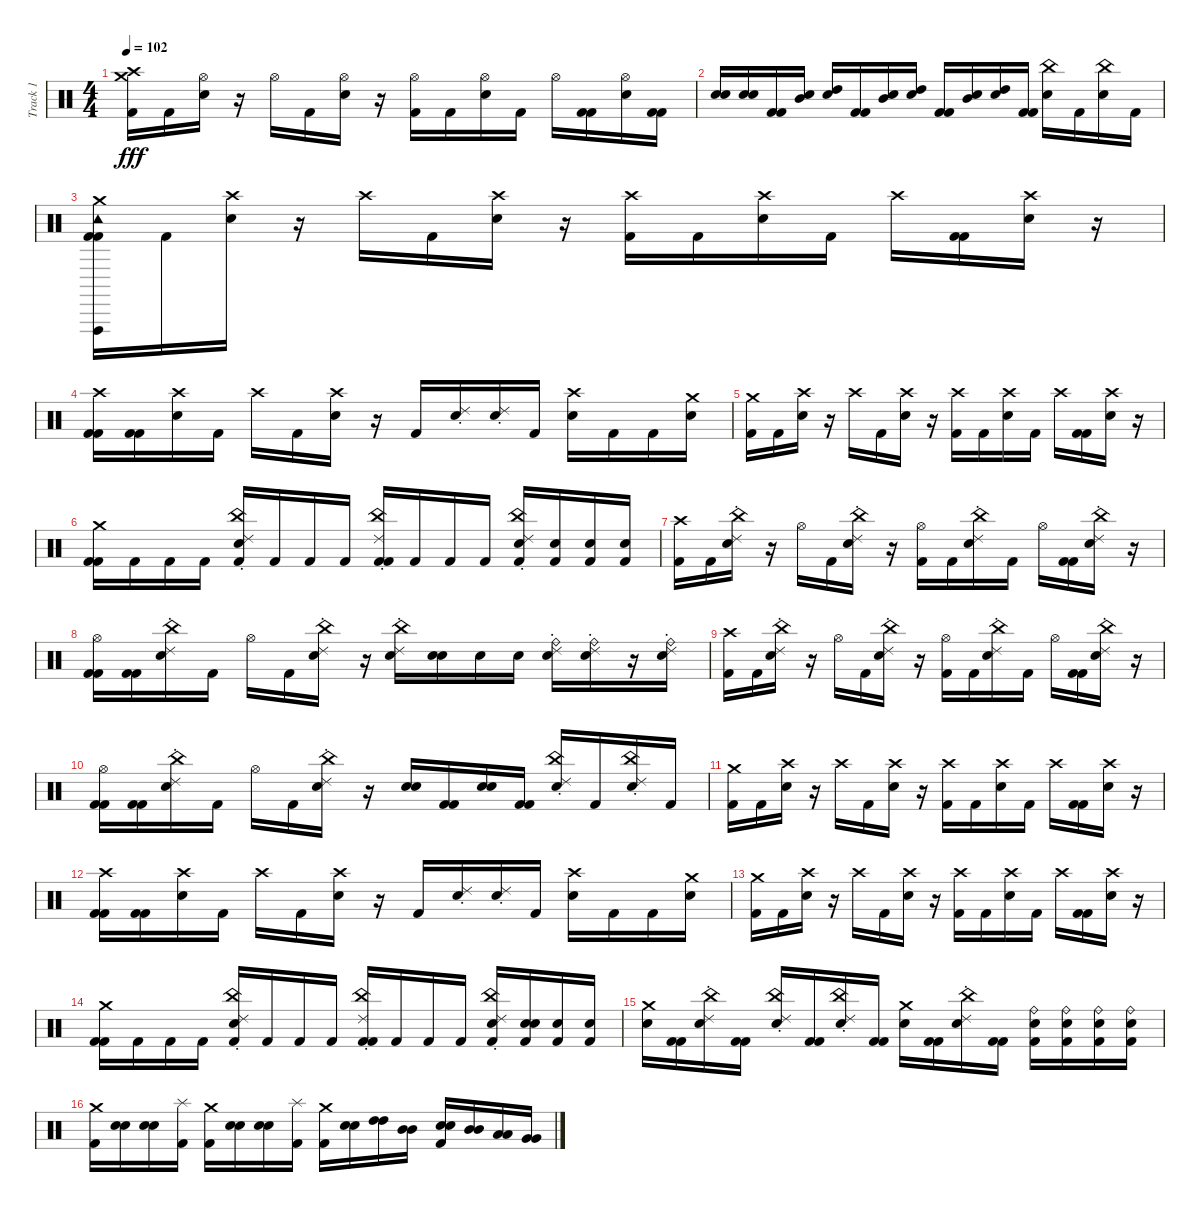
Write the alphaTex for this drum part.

\track ("Track 1" "Track 1") {instrument percussion}
\staff {score}
\articulation defaults
\ts (4 4)
\tempo 102
\clef neutral
\ks c
("Kick (hit) 2" "Crash high (hit)" "Crash medium (hit)").16{dy fff} "Kick (hit) 2".16 ("Snare (hit) 2" "Hi-Hat (open)").16 r.16 "Hi-Hat (open)".16 "Kick (hit) 2".16 ("Snare (hit) 2" "Hi-Hat (open)").16 r.16 ("Kick (hit) 2" "Hi-Hat (open)").16 "Kick (hit) 2".16 ("Snare (hit) 2" "Hi-Hat (open)").16 "Kick (hit) 2".16 "Hi-Hat (open)".16 ("Kick (hit) 2" "Kick (hit) 2").16 ("Hi-Hat (open)" "Snare (hit) 2").16 ("Kick (hit) 2" "Kick (hit) 2").16 |
("Snare (hit) 2" "Snare (hit) 2").16 ("Snare (hit) 2" "Snare (hit) 2").16 ("Kick (hit) 2" "Kick (hit) 2").16 ("Mid Tom (hit)" "Snare (hit) 2").16 ("Snare (hit) 2" "High Tom (hit)").16 ("Kick (hit) 2" "Kick (hit) 2").16 ("Mid Tom (hit)" "Snare (hit) 2").16 ("Snare (hit) 2" "High Tom (hit)").16 ("Kick (hit) 2" "Kick (hit) 2").16 ("Mid Tom (hit)" "Snare (hit) 2").16 ("Snare (hit) 2" "High Tom (hit)").16 ("Kick (hit) 2" "Kick (hit) 2").16 ("Snare (hit) 2" "China (hit)").16 "Kick (hit) 2".16 ("Snare (hit) 2" "China (hit)").16 "Kick (hit) 2".16 |
("Kick (hit) 2" "Vibraslap (hit)" "Tambourine (hit)" "Kick (hit) 2" "Crash medium (hit)").16 "Kick (hit) 2".16 ("Snare (hit) 2" "Crash high (hit)").16 r.16 "Crash high (hit)".16 "Kick (hit) 2".16 ("Snare (hit) 2" "Crash high (hit)").16 r.16 ("Kick (hit) 2" "Crash high (hit)").16 "Kick (hit) 2".16 ("Snare (hit) 2" "Crash high (hit)").16 "Kick (hit) 2".16 "Crash high (hit)".16 ("Kick (hit) 2" "Kick (hit) 2").16 ("Crash high (hit)" "Snare (hit) 2").16 r.16 |
("Crash high (hit)" "Kick (hit) 2" "Kick (hit) 2").16 ("Kick (hit) 2" "Kick (hit) 2").16 ("Crash high (hit)" "Snare (hit) 2").16 "Kick (hit) 2".16 "Crash high (hit)".16 "Kick (hit) 2".16 ("Crash high (hit)" "Snare (hit) 2").16 r.16 "Kick (hit) 2".16 ("Snare (hit) 2" "Ride (choke) 2").16 ("Snare (hit) 2" "Ride (choke) 2").16 "Kick (hit) 2".16 ("Snare (hit) 2" "Crash high (hit)").16 "Kick (hit) 2".16 "Kick (hit) 2".16 ("Crash medium (hit)" "Snare (hit) 2").16 |
("Kick (hit) 2" "Crash medium (hit)").16 "Kick (hit) 2".16 ("Snare (hit) 2" "Crash high (hit)").16 r.16 "Crash high (hit)".16 "Kick (hit) 2".16 ("Snare (hit) 2" "Crash high (hit)").16 r.16 ("Kick (hit) 2" "Crash high (hit)").16 "Kick (hit) 2".16 ("Snare (hit) 2" "Crash high (hit)").16 "Kick (hit) 2".16 "Crash high (hit)".16 ("Kick (hit) 2" "Kick (hit) 2").16 ("Crash high (hit)" "Snare (hit) 2").16 r.16 |
("Kick (hit) 2" "Crash medium (hit)" "Kick (hit) 2").16 "Kick (hit) 2".16 "Kick (hit) 2".16 "Kick (hit) 2".16 ("China (hit)" "Ride (choke) 2" "Kick (hit) 2" "Snare (hit) 2").16 "Kick (hit) 2".16 "Kick (hit) 2".16 "Kick (hit) 2".16 ("Ride (choke) 2" "China (hit)" "Kick (hit) 2" "Kick (hit) 2").16 "Kick (hit) 2".16 "Kick (hit) 2".16 "Kick (hit) 2".16 ("Ride (choke) 2" "China (hit)" "Kick (hit) 2" "Snare (hit) 2").16 ("Kick (hit) 2" "Snare (hit) 2").16 ("Kick (hit) 2" "Snare (hit) 2").16 ("Kick (hit) 2" "Snare (hit) 2").16 |
("Kick (hit) 2" "Crash high (hit)").16 "Kick (hit) 2".16 ("Snare (hit) 2" "China (hit)" "Ride (choke) 2").16 r.16 "Hi-Hat (open)".16 "Kick (hit) 2".16 ("Snare (hit) 2" "China (hit)" "Ride (choke) 2").16 r.16 ("Kick (hit) 2" "Hi-Hat (open)").16 "Kick (hit) 2".16 ("Snare (hit) 2" "China (hit)" "Ride (choke) 2").16 "Kick (hit) 2".16 "Hi-Hat (open)".16 ("Kick (hit) 2" "Kick (hit) 2").16 ("China (hit)" "Ride (choke) 2" "Snare (hit) 2").16 r.16 |
("Hi-Hat (open)" "Kick (hit) 2" "Kick (hit) 2").16 ("Kick (hit) 2" "Kick (hit) 2").16 ("China (hit)" "Ride (choke) 2" "Snare (hit) 2").16 "Kick (hit) 2".16 "Hi-Hat (open)".16 "Kick (hit) 2".16 ("China (hit)" "Ride (choke) 2" "Snare (hit) 2").16 r.16 ("Snare (hit) 2" "China (hit)" "Ride (choke) 2").16 ("Snare (hit) 2" "Snare (hit) 2").16 "Snare (hit) 2".16 "Snare (hit) 2".16 ("Snare (hit) 2" "Ride (bell)" "Ride (choke) 2").16 ("Snare (hit) 2" "Ride (bell)" "Ride (choke) 2").16 r.16 ("Snare (hit) 2" "Ride (bell)" "Ride (choke) 2").16 |
("Kick (hit) 2" "Crash high (hit)").16 "Kick (hit) 2".16 ("Snare (hit) 2" "China (hit)" "Ride (choke) 2").16 r.16 "Hi-Hat (open)".16 "Kick (hit) 2".16 ("Snare (hit) 2" "China (hit)" "Ride (choke) 2").16 r.16 ("Kick (hit) 2" "Hi-Hat (open)").16 "Kick (hit) 2".16 ("Snare (hit) 2" "China (hit)" "Ride (choke) 2").16 "Kick (hit) 2".16 "Hi-Hat (open)".16 ("Kick (hit) 2" "Kick (hit) 2").16 ("China (hit)" "Ride (choke) 2" "Snare (hit) 2").16 r.16 |
("Hi-Hat (open)" "Kick (hit) 2" "Kick (hit) 2").16 ("Kick (hit) 2" "Kick (hit) 2").16 ("China (hit)" "Ride (choke) 2" "Snare (hit) 2").16 "Kick (hit) 2".16 "Hi-Hat (open)".16 "Kick (hit) 2".16 ("China (hit)" "Ride (choke) 2" "Snare (hit) 2").16 r.16 ("Snare (hit) 2" "Snare (hit) 2").16 ("Kick (hit) 2" "Kick (hit) 2").16 ("Snare (hit) 2" "Snare (hit) 2").16 ("Kick (hit) 2" "Kick (hit) 2").16 ("China (hit)" "Ride (choke) 2" "Snare (hit) 2").16 "Kick (hit) 2".16 ("China (hit)" "Ride (choke) 2" "Snare (hit) 2").16 "Kick (hit) 2".16 |
("Kick (hit) 2" "Crash medium (hit)").16 "Kick (hit) 2".16 ("Snare (hit) 2" "Crash high (hit)").16 r.16 "Crash high (hit)".16 "Kick (hit) 2".16 ("Snare (hit) 2" "Crash high (hit)").16 r.16 ("Kick (hit) 2" "Crash high (hit)").16 "Kick (hit) 2".16 ("Snare (hit) 2" "Crash high (hit)").16 "Kick (hit) 2".16 "Crash high (hit)".16 ("Kick (hit) 2" "Kick (hit) 2").16 ("Crash high (hit)" "Snare (hit) 2").16 r.16 |
("Crash high (hit)" "Kick (hit) 2" "Kick (hit) 2").16 ("Kick (hit) 2" "Kick (hit) 2").16 ("Crash high (hit)" "Snare (hit) 2").16 "Kick (hit) 2".16 "Crash high (hit)".16 "Kick (hit) 2".16 ("Crash high (hit)" "Snare (hit) 2").16 r.16 "Kick (hit) 2".16 ("Snare (hit) 2" "Ride (choke) 2").16 ("Snare (hit) 2" "Ride (choke) 2").16 "Kick (hit) 2".16 ("Snare (hit) 2" "Crash high (hit)").16 "Kick (hit) 2".16 "Kick (hit) 2".16 ("Crash medium (hit)" "Snare (hit) 2").16 |
("Kick (hit) 2" "Crash medium (hit)").16 "Kick (hit) 2".16 ("Snare (hit) 2" "Crash high (hit)").16 r.16 "Crash high (hit)".16 "Kick (hit) 2".16 ("Snare (hit) 2" "Crash high (hit)").16 r.16 ("Kick (hit) 2" "Crash high (hit)").16 "Kick (hit) 2".16 ("Snare (hit) 2" "Crash high (hit)").16 "Kick (hit) 2".16 "Crash high (hit)".16 ("Kick (hit) 2" "Kick (hit) 2").16 ("Crash high (hit)" "Snare (hit) 2").16 r.16 |
("Kick (hit) 2" "Crash medium (hit)" "Kick (hit) 2").16 "Kick (hit) 2".16 "Kick (hit) 2".16 "Kick (hit) 2".16 ("China (hit)" "Ride (choke) 2" "Kick (hit) 2" "Snare (hit) 2").16 "Kick (hit) 2".16 "Kick (hit) 2".16 "Kick (hit) 2".16 ("Ride (choke) 2" "China (hit)" "Kick (hit) 2" "Kick (hit) 2").16 "Kick (hit) 2".16 "Kick (hit) 2".16 "Kick (hit) 2".16 ("Ride (choke) 2" "China (hit)" "Kick (hit) 2" "Snare (hit) 2").16 ("Kick (hit) 2" "Snare (hit) 2" "Snare (hit) 2").16 ("Kick (hit) 2" "Snare (hit) 2").16 ("Kick (hit) 2" "Snare (hit) 2").16 |
("Crash medium (hit)" "Snare (hit) 2").16 ("Kick (hit) 2" "Kick (hit) 2").16 ("Snare (hit) 2" "China (hit)" "Ride (choke) 2").16 ("Kick (hit) 2" "Kick (hit) 2").16 ("Snare (hit) 2" "China (hit)" "Ride (choke) 2").16 ("Kick (hit) 2" "Kick (hit) 2").16 ("Snare (hit) 2" "China (hit)" "Ride (choke) 2").16 ("Kick (hit) 2" "Kick (hit) 2").16 ("Crash medium (hit)" "Snare (hit) 2").16 ("Kick (hit) 2" "Kick (hit) 2").16 ("Snare (hit) 2" "China (hit)" "Ride (choke) 2").16 ("Kick (hit) 2" "Kick (hit) 2").16 ("Snare (hit) 2" "Ride (bell)" "Kick (hit) 2").16 ("Snare (hit) 2" "Ride (bell)" "Kick (hit) 2").16 ("Snare (hit) 2" "Ride (bell)" "Kick (hit) 2").16 ("Snare (hit) 2" "Ride (bell)" "Kick (hit) 2").16 |
("Crash medium (hit)" "Kick (hit) 2").16 ("Snare (hit) 2" "Snare (hit) 2").16 ("Snare (hit) 2" "Snare (hit) 2").16 ("Kick (hit) 2" "Splash (hit)").16 ("Crash medium (hit)" "Kick (hit) 2").16 ("Snare (hit) 2" "Snare (hit) 2").16 ("Snare (hit) 2" "Snare (hit) 2").16 ("Kick (hit) 2" "Splash (hit)").16 ("Crash medium (hit)" "Kick (hit) 2").16 ("Snare (hit) 2" "Snare (hit) 2").16 ("High Tom (hit)" "High Tom (hit)").16 ("Mid Tom (hit)" "Mid Tom (hit)").16 ("Snare (hit) 2" "Kick (hit) 2" "Snare (hit) 2").16 ("Mid Tom (hit)" "Mid Tom (hit)").16 ("Low Tom (hit)" "Low Tom (hit)").16 ("Very Low Tom (hit)" "Very Low Tom (hit)").16
